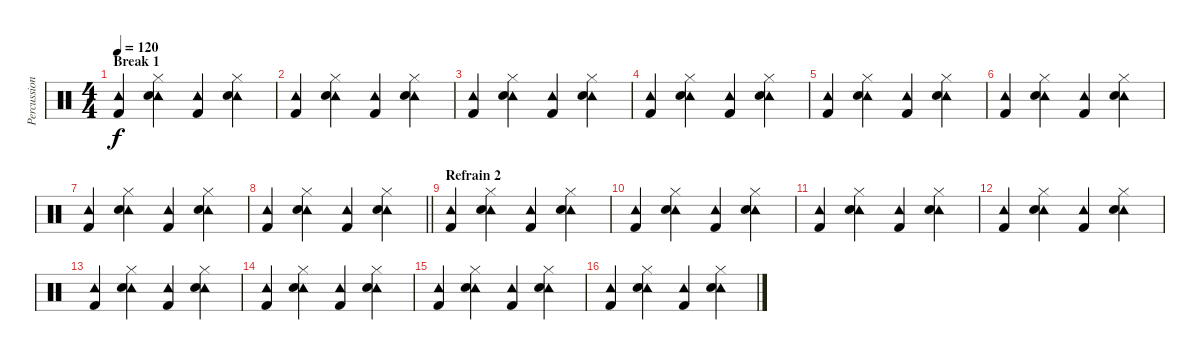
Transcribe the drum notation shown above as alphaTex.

\track ("Percussions" "Percussion") {instrument percussion}
\staff {score}
\articulation defaults
\ts (4 4)
\section ("" "Break 1")
\tempo 120
\clef neutral
\ks c
("Tambourine (hit)" "Kick (hit) 2").4{dy f} ("Tambourine (hit)" "Hi-Hat (closed)" "Snare (hit) 2").4 ("Tambourine (hit)" "Kick (hit) 2").4 ("Tambourine (hit)" "Hi-Hat (closed)" "Snare (hit) 2").4 |
("Tambourine (hit)" "Kick (hit) 2").4 ("Tambourine (hit)" "Hi-Hat (closed)" "Snare (hit) 2").4 ("Tambourine (hit)" "Kick (hit) 2").4 ("Tambourine (hit)" "Hi-Hat (closed)" "Snare (hit) 2").4 |
("Tambourine (hit)" "Kick (hit) 2").4 ("Tambourine (hit)" "Hi-Hat (closed)" "Snare (hit) 2").4 ("Tambourine (hit)" "Kick (hit) 2").4 ("Tambourine (hit)" "Hi-Hat (closed)" "Snare (hit) 2").4 |
("Tambourine (hit)" "Kick (hit) 2").4 ("Tambourine (hit)" "Hi-Hat (closed)" "Snare (hit) 2").4 ("Tambourine (hit)" "Kick (hit) 2").4 ("Tambourine (hit)" "Hi-Hat (closed)" "Snare (hit) 2").4 |
("Tambourine (hit)" "Kick (hit) 2").4 ("Tambourine (hit)" "Hi-Hat (closed)" "Snare (hit) 2").4 ("Tambourine (hit)" "Kick (hit) 2").4 ("Tambourine (hit)" "Hi-Hat (closed)" "Snare (hit) 2").4 |
("Tambourine (hit)" "Kick (hit) 2").4 ("Tambourine (hit)" "Hi-Hat (closed)" "Snare (hit) 2").4 ("Tambourine (hit)" "Kick (hit) 2").4 ("Tambourine (hit)" "Hi-Hat (closed)" "Snare (hit) 2").4 |
("Tambourine (hit)" "Kick (hit) 2").4 ("Tambourine (hit)" "Hi-Hat (closed)" "Snare (hit) 2").4 ("Tambourine (hit)" "Kick (hit) 2").4 ("Tambourine (hit)" "Hi-Hat (closed)" "Snare (hit) 2").4 |
\barLineRight lightlight
("Tambourine (hit)" "Kick (hit) 2").4 ("Tambourine (hit)" "Hi-Hat (closed)" "Snare (hit) 2").4 ("Tambourine (hit)" "Kick (hit) 2").4 ("Tambourine (hit)" "Hi-Hat (closed)" "Snare (hit) 2").4 |
\section ("" "Refrain 2")
("Tambourine (hit)" "Kick (hit) 2").4 ("Tambourine (hit)" "Hi-Hat (closed)" "Snare (hit) 2").4 ("Tambourine (hit)" "Kick (hit) 2").4 ("Tambourine (hit)" "Hi-Hat (closed)" "Snare (hit) 2").4 |
("Tambourine (hit)" "Kick (hit) 2").4 ("Tambourine (hit)" "Hi-Hat (closed)" "Snare (hit) 2").4 ("Tambourine (hit)" "Kick (hit) 2").4 ("Tambourine (hit)" "Hi-Hat (closed)" "Snare (hit) 2").4 |
("Tambourine (hit)" "Kick (hit) 2").4 ("Tambourine (hit)" "Hi-Hat (closed)" "Snare (hit) 2").4 ("Tambourine (hit)" "Kick (hit) 2").4 ("Tambourine (hit)" "Hi-Hat (closed)" "Snare (hit) 2").4 |
("Tambourine (hit)" "Kick (hit) 2").4 ("Tambourine (hit)" "Hi-Hat (closed)" "Snare (hit) 2").4 ("Tambourine (hit)" "Kick (hit) 2").4 ("Tambourine (hit)" "Hi-Hat (closed)" "Snare (hit) 2").4 |
("Tambourine (hit)" "Kick (hit) 2").4 ("Tambourine (hit)" "Hi-Hat (closed)" "Snare (hit) 2").4 ("Tambourine (hit)" "Kick (hit) 2").4 ("Tambourine (hit)" "Hi-Hat (closed)" "Snare (hit) 2").4 |
("Tambourine (hit)" "Kick (hit) 2").4 ("Tambourine (hit)" "Hi-Hat (closed)" "Snare (hit) 2").4 ("Tambourine (hit)" "Kick (hit) 2").4 ("Tambourine (hit)" "Hi-Hat (closed)" "Snare (hit) 2").4 |
("Tambourine (hit)" "Kick (hit) 2").4 ("Tambourine (hit)" "Hi-Hat (closed)" "Snare (hit) 2").4 ("Tambourine (hit)" "Kick (hit) 2").4 ("Tambourine (hit)" "Hi-Hat (closed)" "Snare (hit) 2").4 |
("Tambourine (hit)" "Kick (hit) 2").4 ("Tambourine (hit)" "Hi-Hat (closed)" "Snare (hit) 2").4 ("Tambourine (hit)" "Kick (hit) 2").4 ("Tambourine (hit)" "Hi-Hat (closed)" "Snare (hit) 2").4
